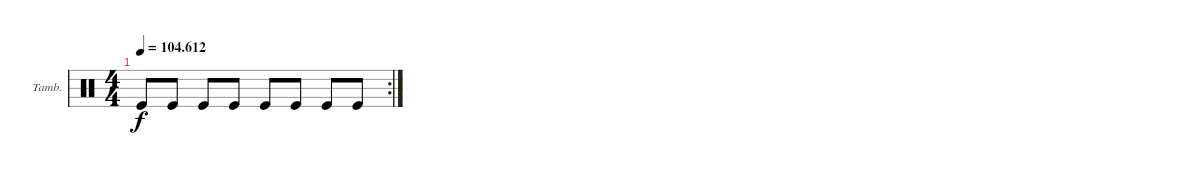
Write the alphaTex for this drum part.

\defaultSystemsLayout 4
\bracketExtendMode groupsimilarinstruments
\firstSystemTrackNameOrientation horizontal
\otherSystemsTrackNameOrientation horizontal
\track ("Tambourine" "Tamb.") {instrument percussion}
\staff {score}
\articulation defaults
\rc 2
\ts (4 4)
\tempo
104.612
\accidentals auto
\clef neutral
\ottava regular
\simile none
\scale
0.355932
\ks c "Kick (hit)".8{dy f} "Kick (hit)".8 "Kick (hit)".8 "Kick (hit)".8 "Kick (hit)".8 "Kick (hit)".8 "Kick (hit)".8 "Kick (hit)".8
|
\scale
0.322034 |
\scale
0.322034 |
\scale
0.333333 |
\scale
0.333333 |
\scale
0.333333 |
\scale
0.333333 |
\scale
0.333333 |
\scale
0.333333 |
\scale
0.333333 |
\scale
0.333333 |
\scale
0.333333 |
\scale
0.333333 |
\scale
0.333333 |
\scale
0.333333 |
\scale
0.333333
